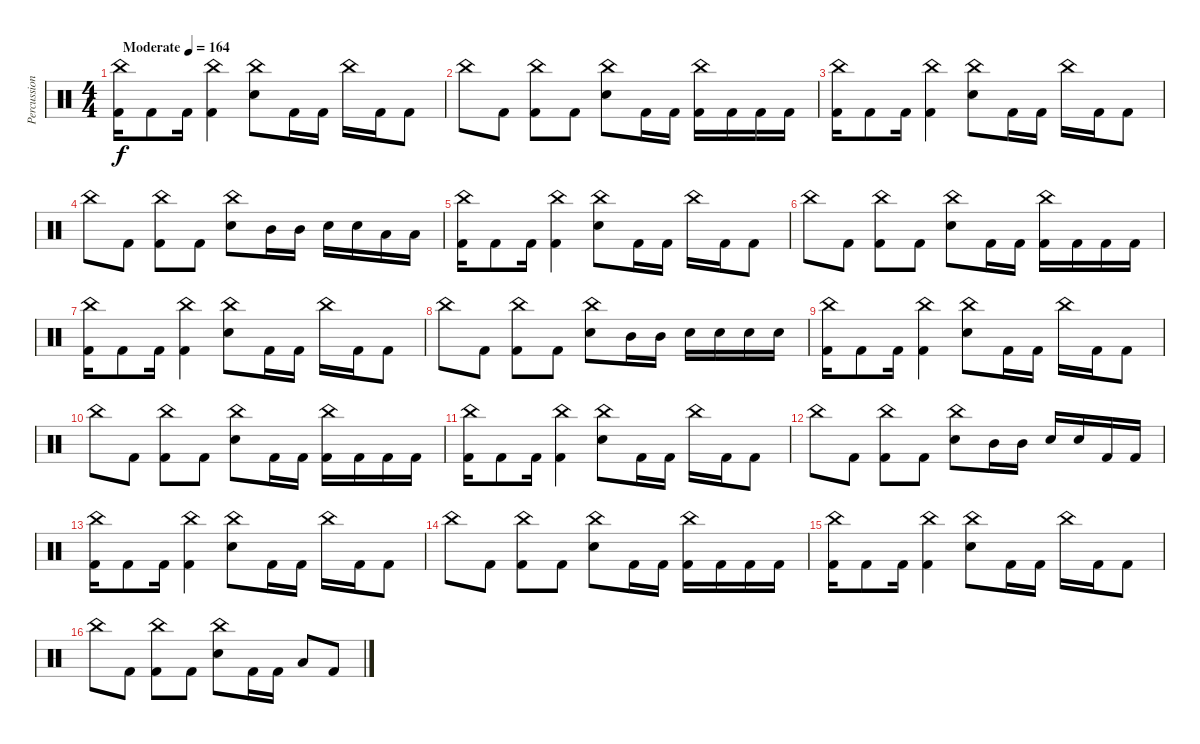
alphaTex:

\track ("Percussion" "Percussion") {instrument percussion}
\staff {score}
\articulation defaults
\ts (4 4)
\tempo (164 "Moderate")
\clef neutral
\ks c
("China (hit)" "Kick (hit) 2").16{dy f} "Kick (hit) 2".8 "Kick (hit) 2".16 ("China (hit)" "Kick (hit) 2").4 ("China (hit)" "Electric Snare (hit)").8 "Kick (hit) 2".16 "Kick (hit) 2".16 "China (hit)".16 "Kick (hit) 2".16 "Kick (hit) 2".8 |
"China (hit)".8 "Kick (hit) 2".8 ("China (hit)" "Kick (hit) 2").8 "Kick (hit) 2".8 ("China (hit)" "Electric Snare (hit)").8 "Kick (hit) 2".16 "Kick (hit) 2".16 ("China (hit)" "Kick (hit) 2").16 "Kick (hit) 2".16 "Kick (hit) 2".16 "Kick (hit) 2".16 |
("China (hit)" "Kick (hit) 2").16 "Kick (hit) 2".8 "Kick (hit) 2".16 ("China (hit)" "Kick (hit) 2").4 ("China (hit)" "Electric Snare (hit)").8 "Kick (hit) 2".16 "Kick (hit) 2".16 "China (hit)".16 "Kick (hit) 2".16 "Kick (hit) 2".8 |
"China (hit)".8 "Kick (hit) 2".8 ("China (hit)" "Kick (hit) 2").8 "Kick (hit) 2".8 ("China (hit)" "Electric Snare (hit)").8 "Mid Tom (hit)".16 "Mid Tom (hit)".16 "Electric Snare (hit)".16 "Electric Snare (hit)".16 "Low Tom (hit)".16 "Low Tom (hit)".16 |
("China (hit)" "Kick (hit) 2").16 "Kick (hit) 2".8 "Kick (hit) 2".16 ("China (hit)" "Kick (hit) 2").4 ("China (hit)" "Electric Snare (hit)").8 "Kick (hit) 2".16 "Kick (hit) 2".16 "China (hit)".16 "Kick (hit) 2".16 "Kick (hit) 2".8 |
"China (hit)".8 "Kick (hit) 2".8 ("China (hit)" "Kick (hit) 2").8 "Kick (hit) 2".8 ("China (hit)" "Electric Snare (hit)").8 "Kick (hit) 2".16 "Kick (hit) 2".16 ("China (hit)" "Kick (hit) 2").16 "Kick (hit) 2".16 "Kick (hit) 2".16 "Kick (hit) 2".16 |
("China (hit)" "Kick (hit) 2").16 "Kick (hit) 2".8 "Kick (hit) 2".16 ("China (hit)" "Kick (hit) 2").4 ("China (hit)" "Electric Snare (hit)").8 "Kick (hit) 2".16 "Kick (hit) 2".16 "China (hit)".16 "Kick (hit) 2".16 "Kick (hit) 2".8 |
"China (hit)".8 "Kick (hit) 2".8 ("China (hit)" "Kick (hit) 2").8 "Kick (hit) 2".8 ("China (hit)" "Electric Snare (hit)").8 "Mid Tom (hit)".16 "Mid Tom (hit)".16 "Electric Snare (hit)".16 "Electric Snare (hit)".16 "Electric Snare (hit)".16 "Electric Snare (hit)".16 |
("China (hit)" "Kick (hit) 2").16 "Kick (hit) 2".8 "Kick (hit) 2".16 ("China (hit)" "Kick (hit) 2").4 ("China (hit)" "Electric Snare (hit)").8 "Kick (hit) 2".16 "Kick (hit) 2".16 "China (hit)".16 "Kick (hit) 2".16 "Kick (hit) 2".8 |
"China (hit)".8 "Kick (hit) 2".8 ("China (hit)" "Kick (hit) 2").8 "Kick (hit) 2".8 ("China (hit)" "Electric Snare (hit)").8 "Kick (hit) 2".16 "Kick (hit) 2".16 ("China (hit)" "Kick (hit) 2").16 "Kick (hit) 2".16 "Kick (hit) 2".16 "Kick (hit) 2".16 |
("China (hit)" "Kick (hit) 2").16 "Kick (hit) 2".8 "Kick (hit) 2".16 ("China (hit)" "Kick (hit) 2").4 ("China (hit)" "Electric Snare (hit)").8 "Kick (hit) 2".16 "Kick (hit) 2".16 "China (hit)".16 "Kick (hit) 2".16 "Kick (hit) 2".8 |
"China (hit)".8 "Kick (hit) 2".8 ("China (hit)" "Kick (hit) 2").8 "Kick (hit) 2".8 ("China (hit)" "Electric Snare (hit)").8 "Mid Tom (hit)".16 "Mid Tom (hit)".16 "Electric Snare (hit)".16 "Electric Snare (hit)".16 "Kick (hit) 2".16 "Kick (hit) 2".16 |
("China (hit)" "Kick (hit) 2").16 "Kick (hit) 2".8 "Kick (hit) 2".16 ("China (hit)" "Kick (hit) 2").4 ("China (hit)" "Electric Snare (hit)").8 "Kick (hit) 2".16 "Kick (hit) 2".16 "China (hit)".16 "Kick (hit) 2".16 "Kick (hit) 2".8 |
"China (hit)".8 "Kick (hit) 2".8 ("China (hit)" "Kick (hit) 2").8 "Kick (hit) 2".8 ("China (hit)" "Electric Snare (hit)").8 "Kick (hit) 2".16 "Kick (hit) 2".16 ("China (hit)" "Kick (hit) 2").16 "Kick (hit) 2".16 "Kick (hit) 2".16 "Kick (hit) 2".16 |
("China (hit)" "Kick (hit) 2").16 "Kick (hit) 2".8 "Kick (hit) 2".16 ("China (hit)" "Kick (hit) 2").4 ("China (hit)" "Electric Snare (hit)").8 "Kick (hit) 2".16 "Kick (hit) 2".16 "China (hit)".16 "Kick (hit) 2".16 "Kick (hit) 2".8 |
"China (hit)".8 "Kick (hit) 2".8 ("China (hit)" "Kick (hit) 2").8 "Kick (hit) 2".8 ("China (hit)" "Electric Snare (hit)").8 "Kick (hit) 2".16 "Kick (hit) 2".16 "Low Tom (hit)".8 "Kick (hit) 2".8
